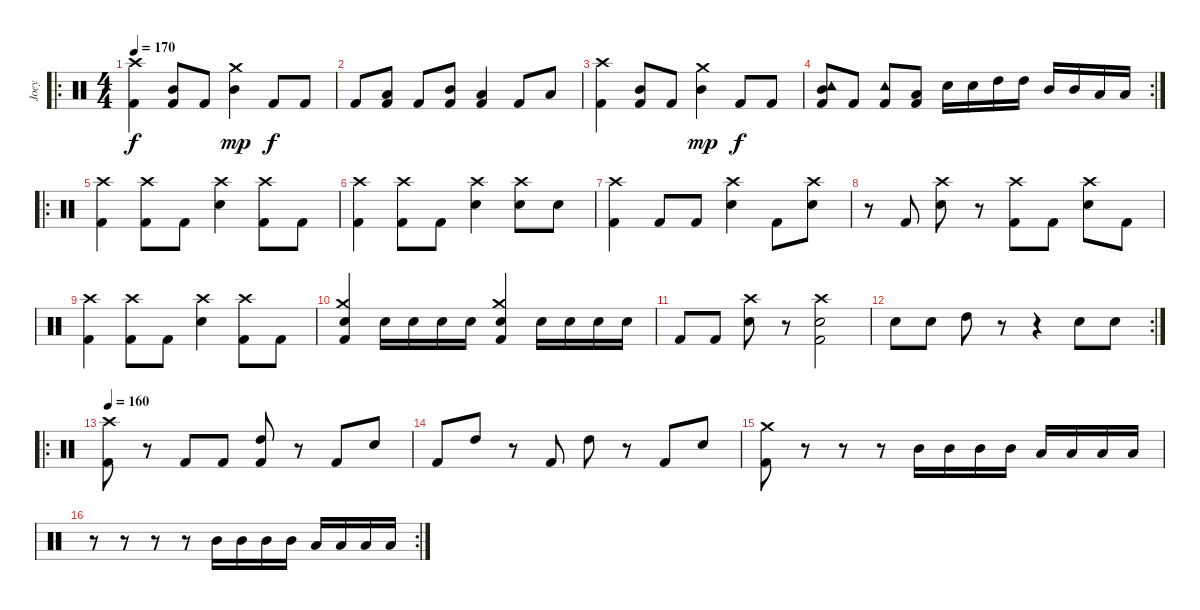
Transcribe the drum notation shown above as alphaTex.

\track ("Joey" "Joey") {instrument percussion}
\staff {score}
\articulation defaults
\ro
\ts (4 4)
\tempo 170
\clef neutral
\ks c
("Crash high (hit)" "Kick (hit) 2").4{dy f} ("Mid Tom (hit)" "Kick (hit) 2").8 "Kick (hit) 2".8 ("Crash medium (hit)" "Mid Tom (hit)").4{dy mp} "Kick (hit) 2".8{dy f} "Kick (hit) 2".8 |
"Kick (hit) 2".8 ("Low Tom (hit)" "Kick (hit) 2").8 "Kick (hit) 2".8 ("Mid Tom (hit)" "Kick (hit) 2").8 ("Low Tom (hit)" "Kick (hit) 2").4 "Kick (hit) 2".8 "Low Tom (hit)".8 |
("Crash high (hit)" "Kick (hit) 2").4 ("Mid Tom (hit)" "Kick (hit) 2").8 "Kick (hit) 2".8 ("Crash medium (hit)" "Mid Tom (hit)").4{dy mp} "Kick (hit) 2".8{dy f} "Kick (hit) 2".8 |
\rc 2
("Tambourine (hit)" "Mid Tom (hit)" "Kick (hit) 2").8 "Kick (hit) 2".8 ("Tambourine (hit)" "Kick (hit) 2").8 ("Low Tom (hit)" "Kick (hit) 2").8 "Electric Snare (hit)".16 "Electric Snare (hit)".16 "High Tom (hit)".16 "High Tom (hit)".16 "Mid Tom (hit)".16 "Mid Tom (hit)".16 "Low Tom (hit)".16 "Low Tom (hit)".16 |
\ro
("Crash high (hit)" "Kick (hit) 2").4 ("Crash high (hit)" "Kick (hit) 2").8 "Kick (hit) 2".8 ("Crash high (hit)" "Electric Snare (hit)").4 ("Crash high (hit)" "Kick (hit) 2").8 "Kick (hit) 2".8 |
("Crash high (hit)" "Kick (hit) 2").4 ("Crash high (hit)" "Kick (hit) 2").8 "Kick (hit) 2".8 ("Crash high (hit)" "Electric Snare (hit)").4 ("Crash high (hit)" "Electric Snare (hit)").8 "Electric Snare (hit)".8 |
("Crash high (hit)" "Kick (hit) 2").4 "Kick (hit) 2".8 "Kick (hit) 2".8 ("Crash high (hit)" "Electric Snare (hit)").4 "Kick (hit) 2".8 ("Crash high (hit)" "Electric Snare (hit)").8 |
r.8 "Kick (hit) 2".8 ("Crash high (hit)" "Electric Snare (hit)").8 r.8 ("Crash high (hit)" "Kick (hit) 2").8 "Kick (hit) 2".8 ("Crash high (hit)" "Electric Snare (hit)").8 "Kick (hit) 2".8 |
("Crash high (hit)" "Kick (hit) 2").4 ("Crash high (hit)" "Kick (hit) 2").8 "Kick (hit) 2".8 ("Crash high (hit)" "Electric Snare (hit)").4 ("Crash high (hit)" "Kick (hit) 2").8 "Kick (hit) 2".8 |
("Crash medium (hit)" "Electric Snare (hit)" "Kick (hit) 2").4 "Electric Snare (hit)".16 "Electric Snare (hit)".16 "Electric Snare (hit)".16 "Electric Snare (hit)".16 ("Crash medium (hit)" "Electric Snare (hit)" "Kick (hit) 2").4 "Electric Snare (hit)".16 "Electric Snare (hit)".16 "Electric Snare (hit)".16 "Electric Snare (hit)".16 |
"Kick (hit) 2".8 "Kick (hit) 2".8 ("Crash high (hit)" "Electric Snare (hit)").8 r.8 ("Crash high (hit)" "Electric Snare (hit)" "Kick (hit) 2").2 |
\rc 2 "Electric Snare (hit)".8 "Electric Snare (hit)".8 "High Tom (hit)".8
r.8 r.4 "Electric Snare (hit)".8 "Electric Snare (hit)".8 |
\ro
\tempo 160
("Crash high (hit)" "Kick (hit) 2").8 r.8 "Kick (hit) 2".8 "Kick (hit) 2".8 ("High Tom (hit)" "Kick (hit) 2").8 r.8 "Kick (hit) 2".8 "Snare (hit)".8 |
"Kick (hit) 2".8 "High Tom (hit)".8 r.8 "Kick (hit) 2".8 "High Tom (hit)".8 r.8 "Kick (hit) 2".8 "Snare (hit)".8 |
("Crash medium (hit)" "Kick (hit) 2").8 r.8 r.8 r.8 "Mid Tom (hit)".16 "Mid Tom (hit)".16 "Mid Tom (hit)".16 "Mid Tom (hit)".16 "Low Tom (hit)".16 "Low Tom (hit)".16 "Low Tom (hit)".16 "Low Tom (hit)".16 |
\rc 2
r.8 r.8 r.8 r.8 "Mid Tom (hit)".16 "Mid Tom (hit)".16 "Mid Tom (hit)".16 "Mid Tom (hit)".16 "Low Tom (hit)".16 "Low Tom (hit)".16 "Low Tom (hit)".16 "Low Tom (hit)".16
